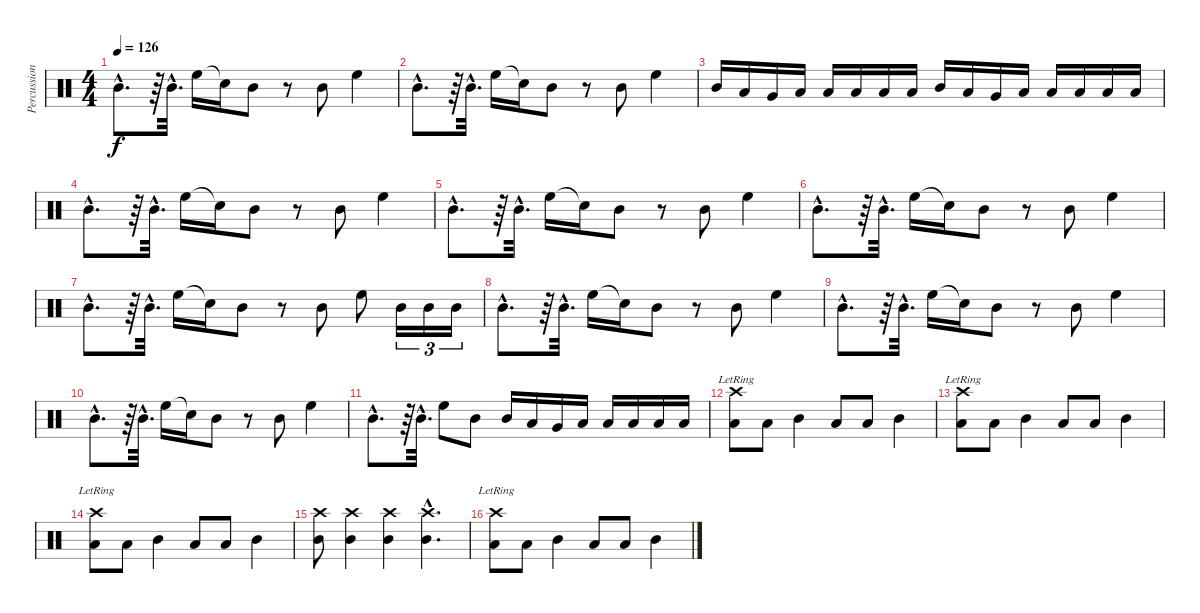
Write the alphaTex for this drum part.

\track ("Percussion" "Percussion") {instrument percussion}
\staff {score}
\articulation defaults
\ts (4 4)
\tempo 126
\clef neutral
\ks c "Mid Tom (hit)"{hac}.8{d dy f}
r.64 "Mid Tom (hit)"{hac}.32{d} "High Floor Tom (hit)".16 "Snare (hit)"{t}.16 "Mid Tom (hit)".8 r.8 "Mid Tom (hit)".8 "High Floor Tom (hit)".4 |
"Mid Tom (hit)"{hac}.8{d} r.64 "Mid Tom (hit)"{hac}.32{d} "High Floor Tom (hit)".16 "Snare (hit)"{t}.16 "Mid Tom (hit)".8 r.8 "Mid Tom (hit)".8 "High Floor Tom (hit)".4 |
"Mid Tom (hit)".16 "Low Tom (hit)".16 "Very Low Tom (hit)".16 "Low Floor Tom (hit)".16 "Low Floor Tom (hit)".16 "Low Floor Tom (hit)".16 "Low Floor Tom (hit)".16 "Low Floor Tom (hit)".16 "Mid Tom (hit)".16 "Low Tom (hit)".16 "Very Low Tom (hit)".16 "Low Floor Tom (hit)".16 "Low Floor Tom (hit)".16 "Low Floor Tom (hit)".16 "Low Floor Tom (hit)".16 "Low Floor Tom (hit)".16 |
"Mid Tom (hit)"{hac}.8{d} r.64 "Mid Tom (hit)"{hac}.32{d} "High Floor Tom (hit)".16 "Snare (hit)"{t}.16 "Mid Tom (hit)".8 r.8 "Mid Tom (hit)".8 "High Floor Tom (hit)".4 |
"Mid Tom (hit)"{hac}.8{d} r.64 "Mid Tom (hit)"{hac}.32{d} "High Floor Tom (hit)".16 "Snare (hit)"{t}.16 "Mid Tom (hit)".8 r.8 "Mid Tom (hit)".8 "High Floor Tom (hit)".4 |
"Mid Tom (hit)"{hac}.8{d} r.64 "Mid Tom (hit)"{hac}.32{d} "High Floor Tom (hit)".16 "Snare (hit)"{t}.16 "Mid Tom (hit)".8 r.8 "Mid Tom (hit)".8 "High Floor Tom (hit)".4 |
"Mid Tom (hit)"{hac}.8{d} r.64 "Mid Tom (hit)"{hac}.32{d} "High Floor Tom (hit)".16 "Snare (hit)"{t}.16 "Mid Tom (hit)".8 r.8 "Mid Tom (hit)".8 "High Floor Tom (hit)".8 "Mid Tom (hit)".16{tu (3 2)} "Mid Tom (hit)".16{tu (3 2)} "Mid Tom (hit)".16{tu (3 2)} |
"Mid Tom (hit)"{hac}.8{d} r.64 "Mid Tom (hit)"{hac}.32{d} "High Floor Tom (hit)".16 "Snare (hit)"{t}.16 "Mid Tom (hit)".8 r.8 "Mid Tom (hit)".8 "High Floor Tom (hit)".4 |
"Mid Tom (hit)"{hac}.8{d} r.64 "Mid Tom (hit)"{hac}.32{d} "High Floor Tom (hit)".16 "Snare (hit)"{t}.16 "Mid Tom (hit)".8 r.8 "Mid Tom (hit)".8 "High Floor Tom (hit)".4 |
"Mid Tom (hit)"{hac}.8{d} r.64 "Mid Tom (hit)"{hac}.32{d} "High Floor Tom (hit)".16 "Snare (hit)"{t}.16 "Mid Tom (hit)".8 r.8 "Mid Tom (hit)".8 "High Floor Tom (hit)".4 |
"Mid Tom (hit)"{hac}.8{d} r.64 "Mid Tom (hit)"{hac}.32{d} "High Floor Tom (hit)".8 "Mid Tom (hit)".8 "Mid Tom (hit)".16 "Low Tom (hit)".16 "Very Low Tom (hit)".16 "Low Floor Tom (hit)".16 "Low Floor Tom (hit)".16 "Low Floor Tom (hit)".16 "Low Floor Tom (hit)".16 "Low Floor Tom (hit)".16 |
("Low Floor Tom (hit)" "Crash high (hit)"{lr}).8 "Low Floor Tom (hit)".8 "Mid Tom (hit)".4 "Low Floor Tom (hit)".8 "Low Floor Tom (hit)".8 "Mid Tom (hit)".4 |
("Low Floor Tom (hit)" "Crash high (hit)"{lr}).8 "Low Floor Tom (hit)".8 "Mid Tom (hit)".4 "Low Floor Tom (hit)".8 "Low Floor Tom (hit)".8 "Mid Tom (hit)".4 |
("Low Floor Tom (hit)" "Crash high (hit)"{lr}).8 "Low Floor Tom (hit)".8 "Mid Tom (hit)".4 "Low Floor Tom (hit)".8 "Low Floor Tom (hit)".8 "Mid Tom (hit)".4 |
("Mid Tom (hit)" "Crash high (hit)").8 ("Mid Tom (hit)" "Crash high (hit)").4 ("Mid Tom (hit)" "Crash high (hit)").4 ("Mid Tom (hit)"{hac} "Crash high (hit)"{hac}).4{d} |
("Low Floor Tom (hit)" "Crash high (hit)"{lr}).8 "Low Floor Tom (hit)".8 "Mid Tom (hit)".4 "Low Floor Tom (hit)".8 "Low Floor Tom (hit)".8 "Mid Tom (hit)".4
